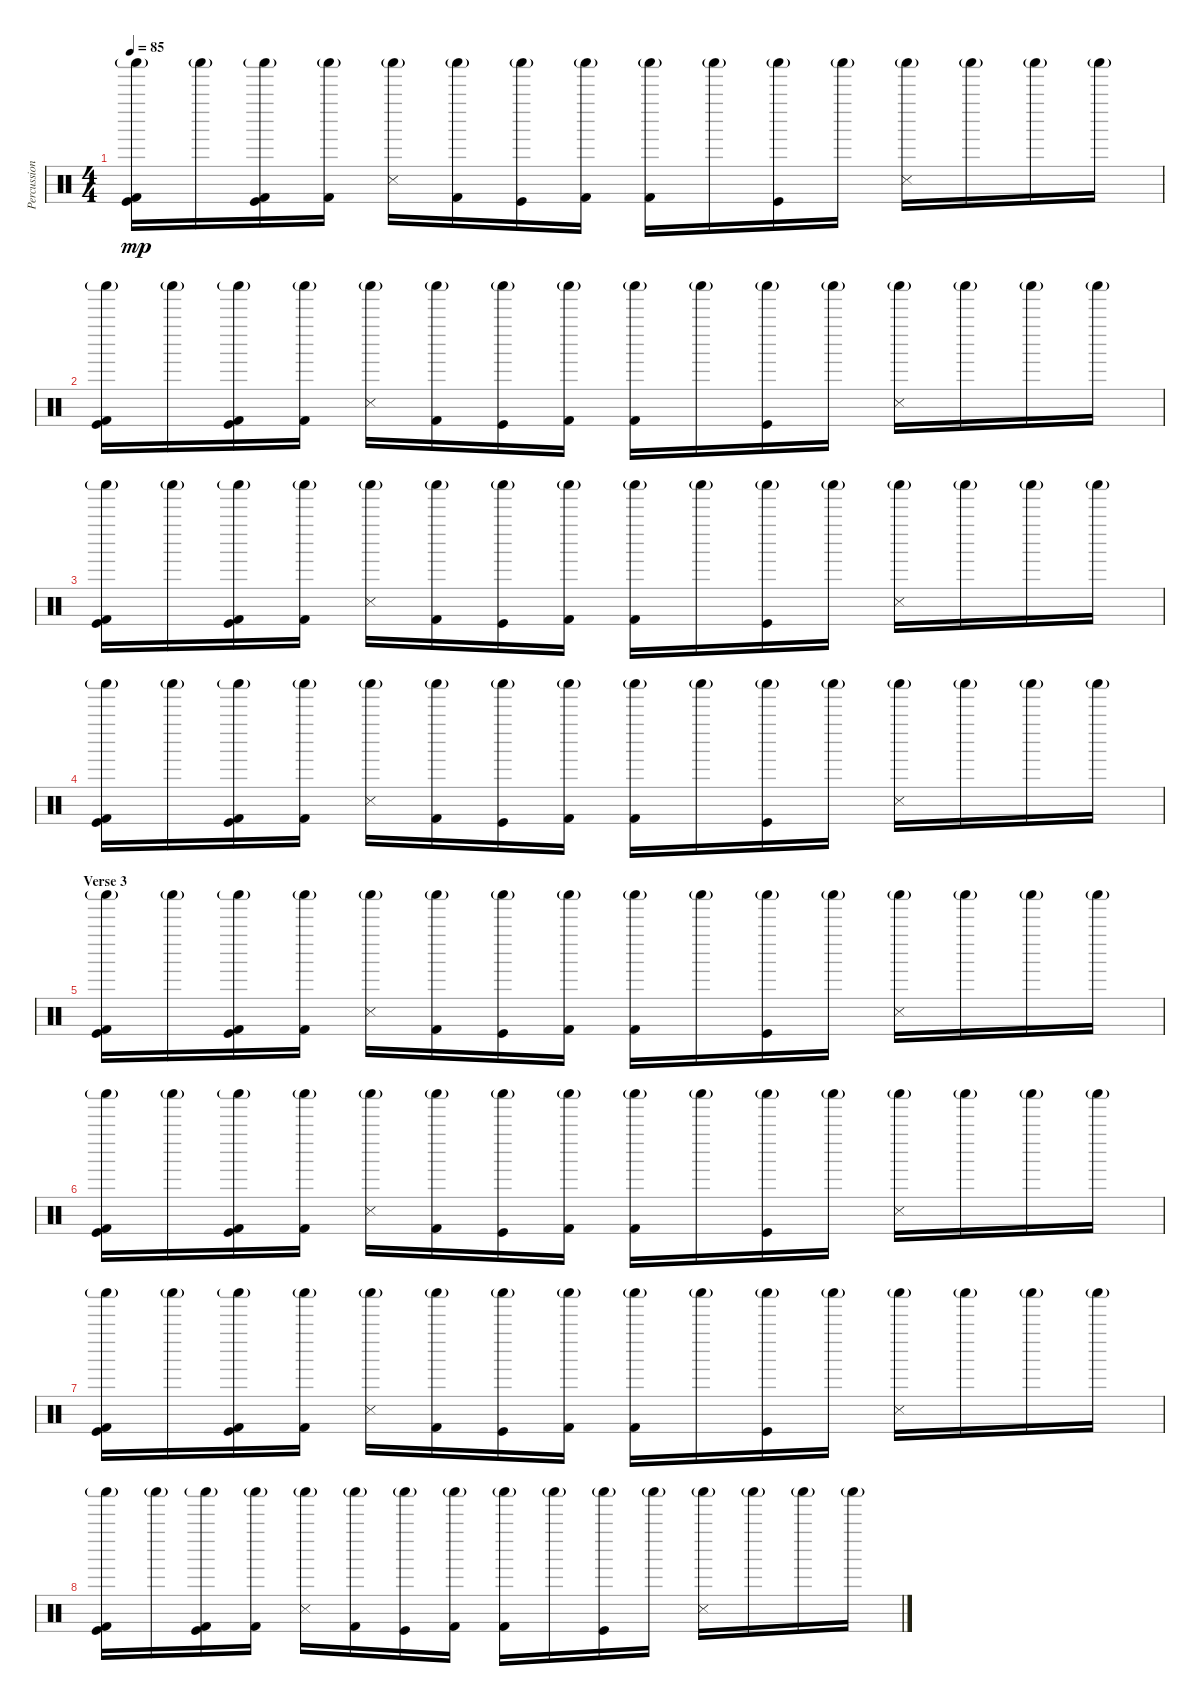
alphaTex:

\track ("Percussions" "Percussion") {instrument percussion}
\staff {score}
\articulation defaults
\ts (4 4)
\tempo 85
\clef neutral
\ks c
("Shaker (hit)"{g} "Kick (hit) 2" "Kick (hit)").16{dy mp} "Shaker (hit)"{g}.16 ("Shaker (hit)"{g} "Kick (hit) 2" "Kick (hit)").16 ("Shaker (hit)"{g} "Kick (hit) 2").16 ("Shaker (hit)"{g} "Snare (side stick) 3").16 ("Shaker (hit)"{g} "Kick (hit) 2").16 ("Shaker (hit)"{g} "Kick (hit)").16 ("Shaker (hit)"{g} "Kick (hit) 2").16 ("Shaker (hit)"{g} "Kick (hit) 2").16 "Shaker (hit)"{g}.16 ("Shaker (hit)"{g} "Kick (hit)").16 "Shaker (hit)"{g}.16 ("Shaker (hit)"{g} "Snare (side stick) 3").16 "Shaker (hit)"{g}.16 "Shaker (hit)"{g}.16 "Shaker (hit)"{g}.16 |
("Shaker (hit)"{g} "Kick (hit) 2" "Kick (hit)").16 "Shaker (hit)"{g}.16 ("Shaker (hit)"{g} "Kick (hit) 2" "Kick (hit)").16 ("Shaker (hit)"{g} "Kick (hit) 2").16 ("Shaker (hit)"{g} "Snare (side stick) 3").16 ("Shaker (hit)"{g} "Kick (hit) 2").16 ("Shaker (hit)"{g} "Kick (hit)").16 ("Shaker (hit)"{g} "Kick (hit) 2").16 ("Shaker (hit)"{g} "Kick (hit) 2").16 "Shaker (hit)"{g}.16 ("Shaker (hit)"{g} "Kick (hit)").16 "Shaker (hit)"{g}.16 ("Shaker (hit)"{g} "Snare (side stick) 3").16 "Shaker (hit)"{g}.16 "Shaker (hit)"{g}.16 "Shaker (hit)"{g}.16 |
("Shaker (hit)"{g} "Kick (hit) 2" "Kick (hit)").16 "Shaker (hit)"{g}.16 ("Shaker (hit)"{g} "Kick (hit) 2" "Kick (hit)").16 ("Shaker (hit)"{g} "Kick (hit) 2").16 ("Shaker (hit)"{g} "Snare (side stick) 3").16 ("Shaker (hit)"{g} "Kick (hit) 2").16 ("Shaker (hit)"{g} "Kick (hit)").16 ("Shaker (hit)"{g} "Kick (hit) 2").16 ("Shaker (hit)"{g} "Kick (hit) 2").16 "Shaker (hit)"{g}.16 ("Shaker (hit)"{g} "Kick (hit)").16 "Shaker (hit)"{g}.16 ("Shaker (hit)"{g} "Snare (side stick) 3").16 "Shaker (hit)"{g}.16 "Shaker (hit)"{g}.16 "Shaker (hit)"{g}.16 |
("Shaker (hit)"{g} "Kick (hit) 2" "Kick (hit)").16 "Shaker (hit)"{g}.16 ("Shaker (hit)"{g} "Kick (hit) 2" "Kick (hit)").16 ("Shaker (hit)"{g} "Kick (hit) 2").16 ("Shaker (hit)"{g} "Snare (side stick) 3").16 ("Shaker (hit)"{g} "Kick (hit) 2").16 ("Shaker (hit)"{g} "Kick (hit)").16 ("Shaker (hit)"{g} "Kick (hit) 2").16 ("Shaker (hit)"{g} "Kick (hit) 2").16 "Shaker (hit)"{g}.16 ("Shaker (hit)"{g} "Kick (hit)").16 "Shaker (hit)"{g}.16 ("Shaker (hit)"{g} "Snare (side stick) 3").16 "Shaker (hit)"{g}.16 "Shaker (hit)"{g}.16 "Shaker (hit)"{g}.16 |
\section ("" "Verse 3")
("Shaker (hit)"{g} "Kick (hit) 2" "Kick (hit)").16 "Shaker (hit)"{g}.16 ("Shaker (hit)"{g} "Kick (hit) 2" "Kick (hit)").16 ("Shaker (hit)"{g} "Kick (hit) 2").16 ("Shaker (hit)"{g} "Snare (side stick) 3").16 ("Shaker (hit)"{g} "Kick (hit) 2").16 ("Shaker (hit)"{g} "Kick (hit)").16 ("Shaker (hit)"{g} "Kick (hit) 2").16 ("Shaker (hit)"{g} "Kick (hit) 2").16 "Shaker (hit)"{g}.16 ("Shaker (hit)"{g} "Kick (hit)").16 "Shaker (hit)"{g}.16 ("Shaker (hit)"{g} "Snare (side stick) 3").16 "Shaker (hit)"{g}.16 "Shaker (hit)"{g}.16 "Shaker (hit)"{g}.16 |
("Shaker (hit)"{g} "Kick (hit) 2" "Kick (hit)").16 "Shaker (hit)"{g}.16 ("Shaker (hit)"{g} "Kick (hit) 2" "Kick (hit)").16 ("Shaker (hit)"{g} "Kick (hit) 2").16 ("Shaker (hit)"{g} "Snare (side stick) 3").16 ("Shaker (hit)"{g} "Kick (hit) 2").16 ("Shaker (hit)"{g} "Kick (hit)").16 ("Shaker (hit)"{g} "Kick (hit) 2").16 ("Shaker (hit)"{g} "Kick (hit) 2").16 "Shaker (hit)"{g}.16 ("Shaker (hit)"{g} "Kick (hit)").16 "Shaker (hit)"{g}.16 ("Shaker (hit)"{g} "Snare (side stick) 3").16 "Shaker (hit)"{g}.16 "Shaker (hit)"{g}.16 "Shaker (hit)"{g}.16 |
("Shaker (hit)"{g} "Kick (hit) 2" "Kick (hit)").16 "Shaker (hit)"{g}.16 ("Shaker (hit)"{g} "Kick (hit) 2" "Kick (hit)").16 ("Shaker (hit)"{g} "Kick (hit) 2").16 ("Shaker (hit)"{g} "Snare (side stick) 3").16 ("Shaker (hit)"{g} "Kick (hit) 2").16 ("Shaker (hit)"{g} "Kick (hit)").16 ("Shaker (hit)"{g} "Kick (hit) 2").16 ("Shaker (hit)"{g} "Kick (hit) 2").16 "Shaker (hit)"{g}.16 ("Shaker (hit)"{g} "Kick (hit)").16 "Shaker (hit)"{g}.16 ("Shaker (hit)"{g} "Snare (side stick) 3").16 "Shaker (hit)"{g}.16 "Shaker (hit)"{g}.16 "Shaker (hit)"{g}.16 |
("Shaker (hit)"{g} "Kick (hit) 2" "Kick (hit)").16 "Shaker (hit)"{g}.16 ("Shaker (hit)"{g} "Kick (hit) 2" "Kick (hit)").16 ("Shaker (hit)"{g} "Kick (hit) 2").16 ("Shaker (hit)"{g} "Snare (side stick) 3").16 ("Shaker (hit)"{g} "Kick (hit) 2").16 ("Shaker (hit)"{g} "Kick (hit)").16 ("Shaker (hit)"{g} "Kick (hit) 2").16 ("Shaker (hit)"{g} "Kick (hit) 2").16 "Shaker (hit)"{g}.16 ("Shaker (hit)"{g} "Kick (hit)").16 "Shaker (hit)"{g}.16 ("Shaker (hit)"{g} "Snare (side stick) 3").16 "Shaker (hit)"{g}.16 "Shaker (hit)"{g}.16 "Shaker (hit)"{g}.16
